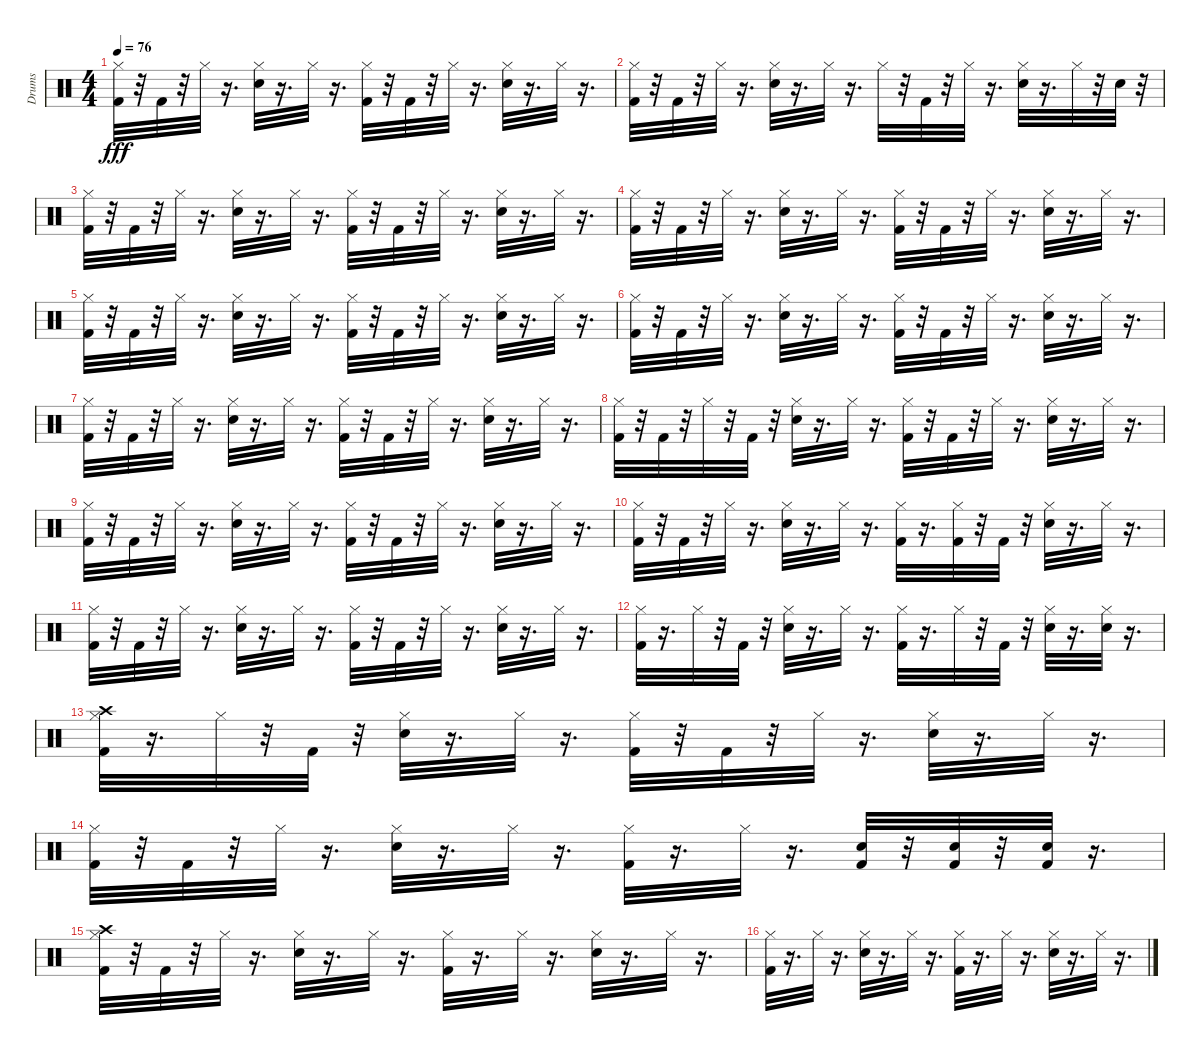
\track ("Drums" "Drums") {instrument percussion}
\staff {score}
\articulation defaults
\ts (4 4)
\tempo 76
\clef neutral
\ks c
("Hi-Hat (closed)" "Kick (hit) 2").32{dy fff} r.32 "Kick (hit) 2".32 r.32 "Hi-Hat (closed)".32 r.16{d} ("Hi-Hat (closed)" "Electric Snare (hit)").32 r.16{d} "Hi-Hat (closed)".32 r.16{d} ("Hi-Hat (closed)" "Kick (hit) 2").32 r.32 "Kick (hit) 2".32 r.32 "Hi-Hat (closed)".32 r.16{d} ("Hi-Hat (closed)" "Electric Snare (hit)").32 r.16{d} "Hi-Hat (closed)".32 r.16{d} |
("Kick (hit) 2" "Hi-Hat (closed)").32 r.32 "Kick (hit) 2".32 r.32 "Hi-Hat (closed)".32 r.16{d} ("Electric Snare (hit)" "Hi-Hat (closed)").32 r.16{d} "Hi-Hat (closed)".32 r.16{d} "Hi-Hat (closed)".32 r.32 "Kick (hit) 2".32 r.32 "Hi-Hat (closed)".32 r.16{d} ("Electric Snare (hit)" "Hi-Hat (closed)").32 r.16{d} "Hi-Hat (closed)".32 r.32 "Electric Snare (hit)".32 r.32 |
("Hi-Hat (closed)" "Kick (hit) 2").32 r.32 "Kick (hit) 2".32 r.32 "Hi-Hat (closed)".32 r.16{d} ("Hi-Hat (closed)" "Electric Snare (hit)").32 r.16{d} "Hi-Hat (closed)".32 r.16{d} ("Hi-Hat (closed)" "Kick (hit) 2").32 r.32 "Kick (hit) 2".32 r.32 "Hi-Hat (closed)".32 r.16{d} ("Hi-Hat (closed)" "Electric Snare (hit)").32 r.16{d} "Hi-Hat (closed)".32 r.16{d} |
("Kick (hit) 2" "Hi-Hat (closed)").32 r.32 "Kick (hit) 2".32 r.32 "Hi-Hat (closed)".32 r.16{d} ("Electric Snare (hit)" "Hi-Hat (closed)").32 r.16{d} "Hi-Hat (closed)".32 r.16{d} ("Kick (hit) 2" "Hi-Hat (closed)").32 r.32 "Kick (hit) 2".32 r.32 "Hi-Hat (closed)".32 r.16{d} ("Electric Snare (hit)" "Hi-Hat (closed)").32 r.16{d} "Hi-Hat (closed)".32 r.16{d} |
("Hi-Hat (closed)" "Kick (hit) 2").32 r.32 "Kick (hit) 2".32 r.32 "Hi-Hat (closed)".32 r.16{d} ("Hi-Hat (closed)" "Electric Snare (hit)").32 r.16{d} "Hi-Hat (closed)".32 r.16{d} ("Hi-Hat (closed)" "Kick (hit) 2").32 r.32 "Kick (hit) 2".32 r.32 "Hi-Hat (closed)".32 r.16{d} ("Hi-Hat (closed)" "Electric Snare (hit)").32 r.16{d} "Hi-Hat (closed)".32 r.16{d} |
("Kick (hit) 2" "Hi-Hat (closed)").32 r.32 "Kick (hit) 2".32 r.32 "Hi-Hat (closed)".32 r.16{d} ("Electric Snare (hit)" "Hi-Hat (closed)").32 r.16{d} "Hi-Hat (closed)".32 r.16{d} ("Kick (hit) 2" "Hi-Hat (closed)").32 r.32 "Kick (hit) 2".32 r.32 "Hi-Hat (closed)".32 r.16{d} ("Electric Snare (hit)" "Hi-Hat (closed)").32 r.16{d} "Hi-Hat (closed)".32 r.16{d} |
("Hi-Hat (closed)" "Kick (hit) 2").32 r.32 "Kick (hit) 2".32 r.32 "Hi-Hat (closed)".32 r.16{d} ("Hi-Hat (closed)" "Electric Snare (hit)").32 r.16{d} "Hi-Hat (closed)".32 r.16{d} ("Hi-Hat (closed)" "Kick (hit) 2").32 r.32 "Kick (hit) 2".32 r.32 "Hi-Hat (closed)".32 r.16{d} ("Hi-Hat (closed)" "Electric Snare (hit)").32 r.16{d} "Hi-Hat (closed)".32 r.16{d} |
("Kick (hit) 2" "Hi-Hat (closed)").32 r.32 "Kick (hit) 2".32 r.32 "Hi-Hat (closed)".32 r.32 "Kick (hit) 2".32 r.32 ("Electric Snare (hit)" "Hi-Hat (closed)").32 r.16{d} "Hi-Hat (closed)".32 r.16{d} ("Kick (hit) 2" "Hi-Hat (closed)").32 r.32 "Kick (hit) 2".32 r.32 "Hi-Hat (closed)".32 r.16{d} ("Electric Snare (hit)" "Hi-Hat (closed)").32 r.16{d} "Hi-Hat (closed)".32 r.16{d} |
("Hi-Hat (closed)" "Kick (hit) 2").32 r.32 "Kick (hit) 2".32 r.32 "Hi-Hat (closed)".32 r.16{d} ("Hi-Hat (closed)" "Electric Snare (hit)").32 r.16{d} "Hi-Hat (closed)".32 r.16{d} ("Hi-Hat (closed)" "Kick (hit) 2").32 r.32 "Kick (hit) 2".32 r.32 "Hi-Hat (closed)".32 r.16{d} ("Hi-Hat (closed)" "Electric Snare (hit)").32 r.16{d} "Hi-Hat (closed)".32 r.16{d} |
("Kick (hit) 2" "Hi-Hat (closed)").32 r.32 "Kick (hit) 2".32 r.32 "Hi-Hat (closed)".32 r.16{d} ("Electric Snare (hit)" "Hi-Hat (closed)").32 r.16{d} "Hi-Hat (closed)".32 r.16{d} ("Kick (hit) 2" "Hi-Hat (closed)").32 r.16{d} ("Kick (hit) 2" "Hi-Hat (closed)").32 r.32 "Kick (hit) 2".32 r.32 ("Electric Snare (hit)" "Hi-Hat (closed)").32 r.16{d} "Hi-Hat (closed)".32 r.16{d} |
("Hi-Hat (closed)" "Kick (hit) 2").32 r.32 "Kick (hit) 2".32 r.32 "Hi-Hat (closed)".32 r.16{d} ("Hi-Hat (closed)" "Electric Snare (hit)").32 r.16{d} "Hi-Hat (closed)".32 r.16{d} ("Hi-Hat (closed)" "Kick (hit) 2").32 r.32 "Kick (hit) 2".32 r.32 "Hi-Hat (closed)".32 r.16{d} ("Hi-Hat (closed)" "Electric Snare (hit)").32 r.16{d} "Hi-Hat (closed)".32 r.16{d} |
("Kick (hit) 2" "Hi-Hat (closed)").32 r.16{d} "Hi-Hat (closed)".32 r.32 "Kick (hit) 2".32 r.32 ("Electric Snare (hit)" "Hi-Hat (closed)").32 r.16{d} "Hi-Hat (closed)".32 r.16{d} ("Kick (hit) 2" "Hi-Hat (closed)").32 r.16{d} "Hi-Hat (closed)".32 r.32 "Kick (hit) 2".32 r.32 ("Electric Snare (hit)" "Hi-Hat (closed)").32 r.16{d} ("Electric Snare (hit)" "Hi-Hat (closed)").32 r.16{d} |
("Crash high (hit)" "Hi-Hat (closed)" "Kick (hit) 2").32 r.16{d} "Hi-Hat (closed)".32 r.32 "Kick (hit) 2".32 r.32 ("Hi-Hat (closed)" "Electric Snare (hit)").32 r.16{d} "Hi-Hat (closed)".32 r.16{d} ("Hi-Hat (closed)" "Kick (hit) 2").32 r.32 "Kick (hit) 2".32 r.32 "Hi-Hat (closed)".32 r.16{d} ("Hi-Hat (closed)" "Electric Snare (hit)").32 r.16{d} "Hi-Hat (closed)".32 r.16{d} |
("Kick (hit) 2" "Hi-Hat (closed)").32 r.32 "Kick (hit) 2".32 r.32 "Hi-Hat (closed)".32 r.16{d} ("Electric Snare (hit)" "Hi-Hat (closed)").32 r.16{d} "Hi-Hat (closed)".32 r.16{d} ("Kick (hit) 2" "Hi-Hat (closed)").32 r.16{d} "Hi-Hat (closed)".32 r.16{d} ("Kick (hit) 2" "Electric Snare (hit)").32 r.32 ("Kick (hit) 2" "Electric Snare (hit)").32 r.32 ("Kick (hit) 2" "Electric Snare (hit)").32 r.16{d} |
("Crash high (hit)" "Hi-Hat (closed)" "Kick (hit) 2").32 r.32 "Kick (hit) 2".32 r.32 "Hi-Hat (closed)".32 r.16{d} ("Hi-Hat (closed)" "Electric Snare (hit)").32 r.16{d} "Hi-Hat (closed)".32 r.16{d} ("Kick (hit) 2" "Hi-Hat (closed)").32 r.16{d} "Hi-Hat (closed)".32 r.16{d} ("Hi-Hat (closed)" "Electric Snare (hit)").32 r.16{d} "Hi-Hat (closed)".32 r.16{d} |
("Kick (hit) 2" "Hi-Hat (closed)").32 r.16{d} "Hi-Hat (closed)".32 r.16{d} ("Electric Snare (hit)" "Hi-Hat (closed)").32 r.16{d} "Hi-Hat (closed)".32 r.16{d} ("Kick (hit) 2" "Hi-Hat (closed)").32 r.16{d} "Hi-Hat (closed)".32 r.16{d txt ""} ("Hi-Hat (closed)" "Electric Snare (hit)").32 r.16{d} "Hi-Hat (closed)".32 r.16{d}
